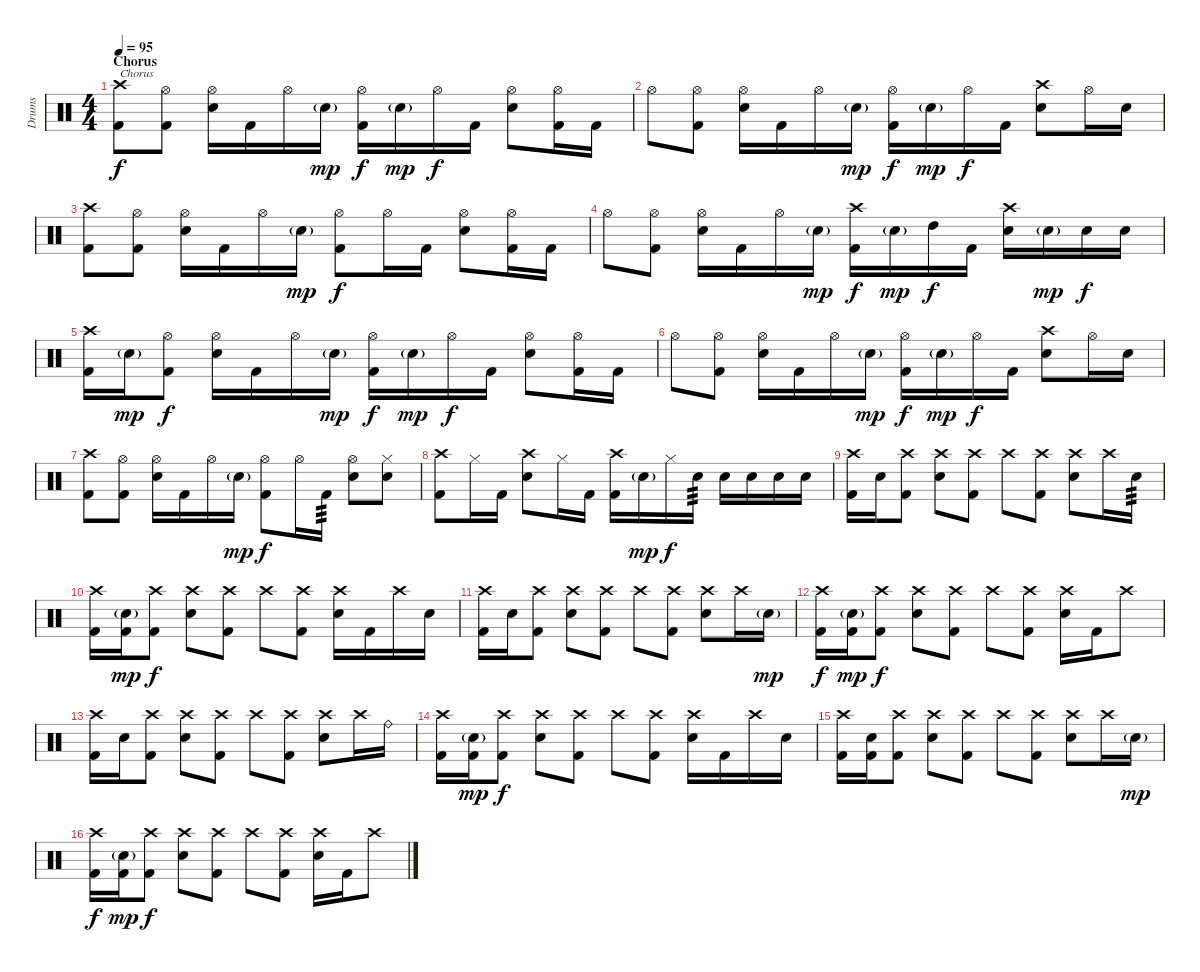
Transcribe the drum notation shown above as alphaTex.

\track ("Drums" "Drums") {instrument percussion}
\staff {score}
\articulation defaults
\ts (4 4)
\section ("" "Chorus")
\tempo 95
\clef neutral
\ks c
("Crash high (hit)" "Kick (hit) 2").8{txt "Chorus" dy f} ("Hi-Hat (open)" "Kick (hit) 2").8 ("Hi-Hat (open)" "Electric Snare (hit)").16 "Kick (hit) 2".16 "Hi-Hat (open)".16 "Electric Snare (hit)"{g}.16{dy mp} ("Hi-Hat (open)" "Kick (hit) 2").16{dy f} "Electric Snare (hit)"{g}.16{dy mp} "Hi-Hat (open)".16{dy f} "Kick (hit) 2".16 ("Hi-Hat (open)" "Electric Snare (hit)").8 ("Hi-Hat (open)" "Kick (hit) 2").16 "Kick (hit) 2".16 |
"Hi-Hat (open)".8 ("Hi-Hat (open)" "Kick (hit) 2").8 ("Hi-Hat (open)" "Electric Snare (hit)").16 "Kick (hit) 2".16 "Hi-Hat (open)".16 "Electric Snare (hit)"{g}.16{dy mp} ("Hi-Hat (open)" "Kick (hit) 2").16{dy f} "Electric Snare (hit)"{g}.16{dy mp} "Hi-Hat (open)".16{dy f} "Kick (hit) 2".16 ("Crash high (hit)" "Electric Snare (hit)").8 "Hi-Hat (open)".16 "Electric Snare (hit)".16 |
("Crash high (hit)" "Kick (hit) 2").8 ("Hi-Hat (open)" "Kick (hit) 2").8 ("Hi-Hat (open)" "Electric Snare (hit)").16 "Kick (hit) 2".16 "Hi-Hat (open)".16 "Electric Snare (hit)"{g}.16{dy mp} ("Hi-Hat (open)" "Kick (hit) 2").8{dy f} "Hi-Hat (open)".16 "Kick (hit) 2".16 ("Hi-Hat (open)" "Electric Snare (hit)").8 ("Hi-Hat (open)" "Kick (hit) 2").16 "Kick (hit) 2".16 |
"Hi-Hat (open)".8 ("Hi-Hat (open)" "Kick (hit) 2").8 ("Hi-Hat (open)" "Electric Snare (hit)").16 "Kick (hit) 2".16 "Hi-Hat (open)".16 "Electric Snare (hit)"{g}.16{dy mp} ("Crash high (hit)" "Kick (hit) 2").16{dy f} "Electric Snare (hit)"{g}.16{dy mp} "High Tom (hit)".16{dy f} "Kick (hit) 2".16 ("Crash high (hit)" "Electric Snare (hit)").16 "Electric Snare (hit)"{g}.16{dy mp} "Electric Snare (hit)".16{dy f} "Electric Snare (hit)".16 |
("Crash high (hit)" "Kick (hit) 2").16 "Electric Snare (hit)"{g}.16{dy mp} ("Hi-Hat (open)" "Kick (hit) 2").8{dy f} ("Hi-Hat (open)" "Electric Snare (hit)").16 "Kick (hit) 2".16 "Hi-Hat (open)".16 "Electric Snare (hit)"{g}.16{dy mp} ("Hi-Hat (open)" "Kick (hit) 2").16{dy f} "Electric Snare (hit)"{g}.16{dy mp} "Hi-Hat (open)".16{dy f} "Kick (hit) 2".16 ("Hi-Hat (open)" "Electric Snare (hit)").8 ("Hi-Hat (open)" "Kick (hit) 2").16 "Kick (hit) 2".16 |
"Hi-Hat (open)".8 ("Hi-Hat (open)" "Kick (hit) 2").8 ("Hi-Hat (open)" "Electric Snare (hit)").16 "Kick (hit) 2".16 "Hi-Hat (open)".16 "Electric Snare (hit)"{g}.16{dy mp} ("Hi-Hat (open)" "Kick (hit) 2").16{dy f} "Electric Snare (hit)"{g}.16{dy mp} "Hi-Hat (open)".16{dy f} "Kick (hit) 2".16 ("Crash high (hit)" "Electric Snare (hit)").8 "Hi-Hat (open)".16 "Electric Snare (hit)".16 |
("Crash high (hit)" "Kick (hit) 2").8 ("Hi-Hat (open)" "Kick (hit) 2").8 ("Hi-Hat (open)" "Electric Snare (hit)").16 "Kick (hit) 2".16 "Hi-Hat (open)".16 "Electric Snare (hit)"{g}.16{dy mp} ("Hi-Hat (open)" "Kick (hit) 2").8{dy f} "Hi-Hat (open)".16 "Kick (hit) 2".16{tp 3} ("Hi-Hat (open)" "Electric Snare (hit)").8 ("Hi-Hat (closed)" "Electric Snare (hit)").8 |
("Crash high (hit)" "Kick (hit) 2").8 "Hi-Hat (closed)".16 "Kick (hit) 2".16 ("Crash high (hit)" "Electric Snare (hit)").8 "Hi-Hat (closed)".16 "Kick (hit) 2".16 ("Crash high (hit)" "Kick (hit) 2").16 "Electric Snare (hit)"{g}.16{dy mp} "Hi-Hat (closed)".16{dy f} "Electric Snare (hit)".16{tp 3} "Electric Snare (hit)".16 "Electric Snare (hit)".16 "Electric Snare (hit)".16 "Electric Snare (hit)".16 |
("Crash high (hit)" "Kick (hit) 2").16 "Electric Snare (hit)".16 ("Crash high (hit)" "Kick (hit) 2").8 ("Crash high (hit)" "Electric Snare (hit)").8 ("Crash high (hit)" "Kick (hit) 2").8 "Crash high (hit)".8 ("Crash high (hit)" "Kick (hit) 2").8 ("Crash high (hit)" "Electric Snare (hit)").8 "Crash high (hit)".16 "Electric Snare (hit)".16{tp 3} |
("Crash high (hit)" "Kick (hit) 2").16 ("Electric Snare (hit)"{g} "Kick (hit) 2").16{dy mp} ("Crash high (hit)" "Kick (hit) 2").8{dy f} ("Crash high (hit)" "Electric Snare (hit)").8 ("Crash high (hit)" "Kick (hit) 2").8 "Crash high (hit)".8 ("Crash high (hit)" "Kick (hit) 2").8 ("Crash high (hit)" "Electric Snare (hit)").16 "Kick (hit) 2".16 "Crash high (hit)".16 "Electric Snare (hit)".16 |
("Crash high (hit)" "Kick (hit) 2").16 "Electric Snare (hit)".16 ("Crash high (hit)" "Kick (hit) 2").8 ("Crash high (hit)" "Electric Snare (hit)").8 ("Crash high (hit)" "Kick (hit) 2").8 "Crash high (hit)".8 ("Crash high (hit)" "Kick (hit) 2").8 ("Crash high (hit)" "Electric Snare (hit)").8 "Crash high (hit)".16 "Electric Snare (hit)"{g}.16{dy mp} |
("Crash high (hit)" "Kick (hit) 2").16{dy f} ("Electric Snare (hit)"{g} "Kick (hit) 2").16{dy mp} ("Crash high (hit)" "Kick (hit) 2").8{dy f} ("Crash high (hit)" "Electric Snare (hit)").8 ("Crash high (hit)" "Kick (hit) 2").8 "Crash high (hit)".8 ("Crash high (hit)" "Kick (hit) 2").8 ("Crash high (hit)" "Electric Snare (hit)").16 "Kick (hit) 2".16 "Crash high (hit)".8 |
("Crash high (hit)" "Kick (hit) 2").16 "Electric Snare (hit)".16 ("Crash high (hit)" "Kick (hit) 2").8 ("Crash high (hit)" "Electric Snare (hit)").8 ("Crash high (hit)" "Kick (hit) 2").8 "Crash high (hit)".8 ("Crash high (hit)" "Kick (hit) 2").8 ("Crash high (hit)" "Electric Snare (hit)").8 "Crash high (hit)".16 "Ride (bell)".16 |
("Crash high (hit)" "Kick (hit) 2").16 ("Electric Snare (hit)"{g} "Kick (hit) 2").16{dy mp} ("Crash high (hit)" "Kick (hit) 2").8{dy f} ("Crash high (hit)" "Electric Snare (hit)").8 ("Crash high (hit)" "Kick (hit) 2").8 "Crash high (hit)".8 ("Crash high (hit)" "Kick (hit) 2").8 ("Crash high (hit)" "Electric Snare (hit)").16 "Kick (hit) 2".16 "Crash high (hit)".16 "Electric Snare (hit)".16 |
("Crash high (hit)" "Kick (hit) 2").16 ("Electric Snare (hit)" "Kick (hit) 2").16 ("Crash high (hit)" "Kick (hit) 2").8 ("Crash high (hit)" "Electric Snare (hit)").8 ("Crash high (hit)" "Kick (hit) 2").8 "Crash high (hit)".8 ("Crash high (hit)" "Kick (hit) 2").8 ("Crash high (hit)" "Electric Snare (hit)").8 "Crash high (hit)".16 "Electric Snare (hit)"{g}.16{dy mp} |
("Crash high (hit)" "Kick (hit) 2").16{dy f} ("Electric Snare (hit)"{g} "Kick (hit) 2").16{dy mp} ("Crash high (hit)" "Kick (hit) 2").8{dy f} ("Crash high (hit)" "Electric Snare (hit)").8 ("Crash high (hit)" "Kick (hit) 2").8 "Crash high (hit)".8 ("Crash high (hit)" "Kick (hit) 2").8 ("Crash high (hit)" "Electric Snare (hit)").16 "Kick (hit) 2".16 "Crash high (hit)".8
